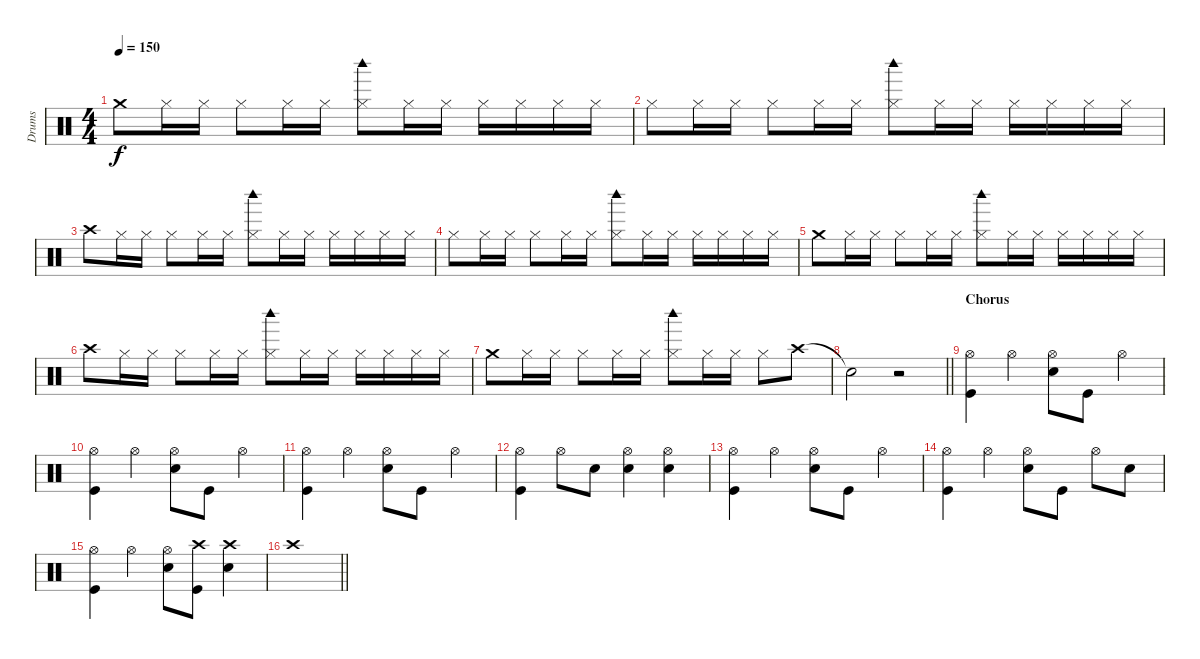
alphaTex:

\track ("Drums" "Drums") {instrument percussion}
\staff {score}
\articulation defaults
\ts (4 4)
\tempo 150
\clef neutral
\ks c "Crash medium (hit)".8{dy f} "Hi-Hat (closed)".16 "Hi-Hat (closed)".16 "Hi-Hat (closed)".8 "Hi-Hat (closed)".16 "Hi-Hat (closed)".16
("Hi-Hat (closed)" "Woodblock high (hit)").8 "Hi-Hat (closed)".16 "Hi-Hat (closed)".16 "Hi-Hat (closed)".16 "Hi-Hat (closed)".16 "Hi-Hat (closed)".16 "Hi-Hat (closed)".16 |
"Hi-Hat (closed)".8 "Hi-Hat (closed)".16 "Hi-Hat (closed)".16 "Hi-Hat (closed)".8 "Hi-Hat (closed)".16 "Hi-Hat (closed)".16 ("Hi-Hat (closed)" "Woodblock high (hit)").8 "Hi-Hat (closed)".16 "Hi-Hat (closed)".16 "Hi-Hat (closed)".16 "Hi-Hat (closed)".16 "Hi-Hat (closed)".16 "Hi-Hat (closed)".16 |
"Crash high (hit)".8 "Hi-Hat (closed)".16 "Hi-Hat (closed)".16 "Hi-Hat (closed)".8 "Hi-Hat (closed)".16 "Hi-Hat (closed)".16 ("Hi-Hat (closed)" "Woodblock high (hit)").8 "Hi-Hat (closed)".16 "Hi-Hat (closed)".16 "Hi-Hat (closed)".16 "Hi-Hat (closed)".16 "Hi-Hat (closed)".16 "Hi-Hat (closed)".16 |
"Hi-Hat (closed)".8 "Hi-Hat (closed)".16 "Hi-Hat (closed)".16 "Hi-Hat (closed)".8 "Hi-Hat (closed)".16 "Hi-Hat (closed)".16 ("Hi-Hat (closed)" "Woodblock high (hit)").8 "Hi-Hat (closed)".16 "Hi-Hat (closed)".16 "Hi-Hat (closed)".16 "Hi-Hat (closed)".16 "Hi-Hat (closed)".16 "Hi-Hat (closed)".16 |
"Crash medium (hit)".8 "Hi-Hat (closed)".16 "Hi-Hat (closed)".16 "Hi-Hat (closed)".8 "Hi-Hat (closed)".16 "Hi-Hat (closed)".16 ("Hi-Hat (closed)" "Woodblock high (hit)").8 "Hi-Hat (closed)".16 "Hi-Hat (closed)".16 "Hi-Hat (closed)".16 "Hi-Hat (closed)".16 "Hi-Hat (closed)".16 "Hi-Hat (closed)".16 |
"Crash high (hit)".8 "Hi-Hat (closed)".16 "Hi-Hat (closed)".16 "Hi-Hat (closed)".8 "Hi-Hat (closed)".16 "Hi-Hat (closed)".16 ("Hi-Hat (closed)" "Woodblock high (hit)").8 "Hi-Hat (closed)".16 "Hi-Hat (closed)".16 "Hi-Hat (closed)".16 "Hi-Hat (closed)".16 "Hi-Hat (closed)".16 "Hi-Hat (closed)".16 |
"Crash medium (hit)".8 "Hi-Hat (closed)".16 "Hi-Hat (closed)".16 "Hi-Hat (closed)".8 "Hi-Hat (closed)".16 "Hi-Hat (closed)".16 ("Hi-Hat (closed)" "Woodblock high (hit)").8 "Hi-Hat (closed)".16 "Hi-Hat (closed)".16 "Hi-Hat (closed)".8 "Crash high (hit)".8 |
\barLineRight lightlight "Snare (hit)"{t}.2
r.2 |
\section ("" "Chorus")
("Hi-Hat (open)" "Kick (hit)").4 "Hi-Hat (open)".4 ("Hi-Hat (open)" "Snare (hit) 2").8 "Kick (hit)".8 "Hi-Hat (open)".4 |
("Hi-Hat (open)" "Kick (hit)").4 "Hi-Hat (open)".4 ("Hi-Hat (open)" "Snare (hit) 2").8 "Kick (hit)".8 "Hi-Hat (open)".4 |
("Hi-Hat (open)" "Kick (hit)").4 "Hi-Hat (open)".4 ("Hi-Hat (open)" "Snare (hit) 2").8 "Kick (hit)".8 "Hi-Hat (open)".4 |
("Hi-Hat (open)" "Kick (hit)").4 "Hi-Hat (open)".8 "Snare (hit) 2".8 ("Hi-Hat (open)" "Snare (hit) 2").4 ("Hi-Hat (open)" "Snare (hit) 2").4 |
("Hi-Hat (open)" "Kick (hit)").4 "Hi-Hat (open)".4 ("Hi-Hat (open)" "Snare (hit) 2").8 "Kick (hit)".8 "Hi-Hat (open)".4 |
("Hi-Hat (open)" "Kick (hit)").4 "Hi-Hat (open)".4 ("Hi-Hat (open)" "Snare (hit) 2").8 "Kick (hit)".8 "Hi-Hat (open)".8 "Snare (hit) 2".8 |
("Hi-Hat (open)" "Kick (hit)").4 "Hi-Hat (open)".4 ("Hi-Hat (open)" "Snare (hit) 2").8 ("Crash high (hit)" "Kick (hit)").8 ("Crash high (hit)" "Snare (hit) 2").4 |
\barLineRight lightlight "Crash high (hit)".1
